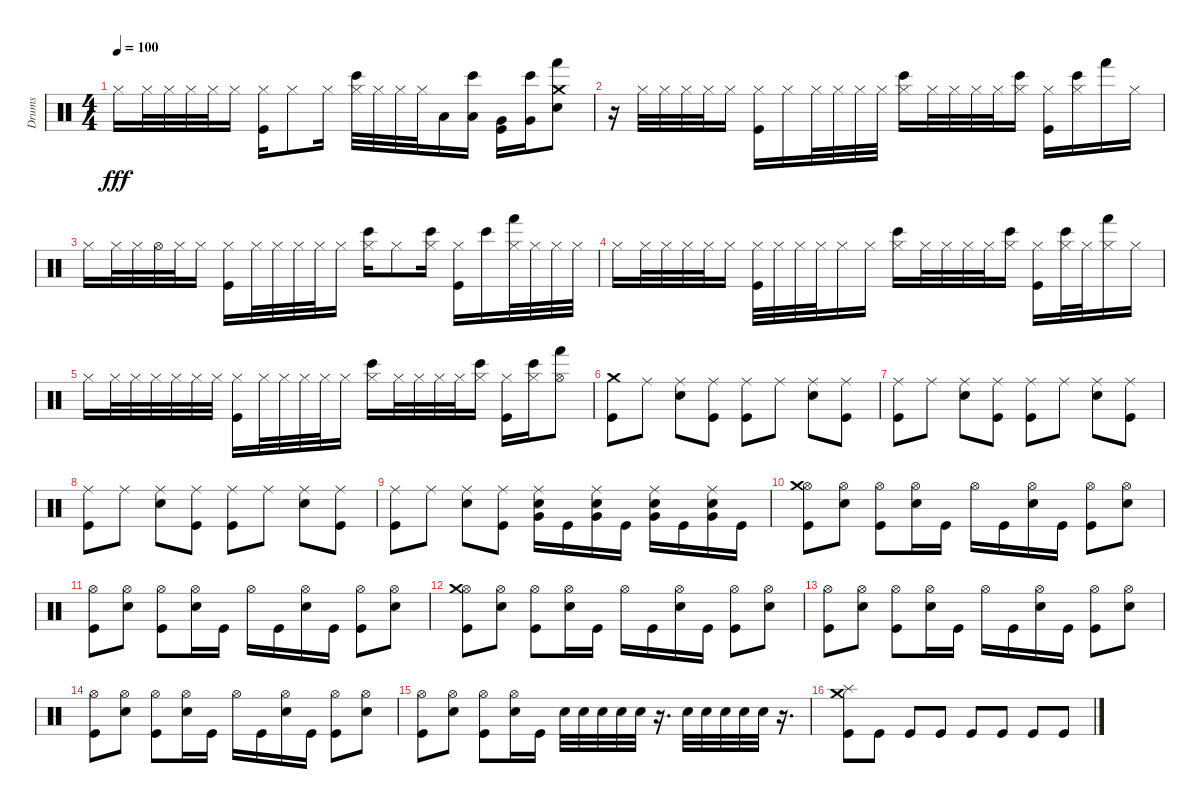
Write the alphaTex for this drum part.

\track ("Drums" "Drums") {instrument percussion}
\staff {score}
\articulation defaults
\ts (4 4)
\tempo 100
\clef neutral
\ks c "Hi-Hat (closed)".16{dy fff} "Hi-Hat (closed)".32 "Hi-Hat (closed)".32 "Hi-Hat (closed)".32 "Hi-Hat (closed)".32 "Hi-Hat (closed)".16
("Hi-Hat (closed)" "Kick (hit)").16 "Hi-Hat (closed)".8 "Hi-Hat (closed)".16 ("Bongo High (hit)" "Hi-Hat (closed)").32 "Hi-Hat (closed)".32 "Hi-Hat (closed)".32 "Hi-Hat (closed)".32 "Low Tom (hit)".16 ("Bongo High (hit)" "Low Tom (hit)").16 ("Very Low Tom (hit)" "Kick (hit)").16 ("Bongo High (hit)" "Very Low Tom (hit)").16 ("Hand (hit)" "Snare (hit) 2" "Crash medium (hit)").8 |
r.16 "Hi-Hat (closed)".32 "Hi-Hat (closed)".32 "Hi-Hat (closed)".32 "Hi-Hat (closed)".32 "Hi-Hat (closed)".16 ("Hi-Hat (closed)" "Kick (hit)").16 "Hi-Hat (closed)".16 "Hi-Hat (closed)".32 "Hi-Hat (closed)".32 "Hi-Hat (closed)".32 "Hi-Hat (closed)".32 ("Hi-Hat (closed)" "Bongo High (hit)").16 "Hi-Hat (closed)".32 "Hi-Hat (closed)".32 "Hi-Hat (closed)".32 "Hi-Hat (closed)".32 ("Hi-Hat (closed)" "Bongo High (hit)").16 ("Hi-Hat (closed)" "Kick (hit)").16 ("Hi-Hat (closed)" "Bongo High (hit)").16 "Hand (hit)".16 "Hi-Hat (closed)".16 |
"Hi-Hat (closed)".16 "Hi-Hat (closed)".32 "Hi-Hat (closed)".32 "Hi-Hat (open)".32 "Hi-Hat (closed)".32 "Hi-Hat (closed)".16 ("Kick (hit)" "Hi-Hat (closed)").16 "Hi-Hat (closed)".32 "Hi-Hat (closed)".32 "Hi-Hat (closed)".32 "Hi-Hat (closed)".32 "Hi-Hat (closed)".16 ("Hi-Hat (closed)" "Bongo High (hit)").16 "Hi-Hat (closed)".8 ("Hi-Hat (closed)" "Bongo High (hit)").16 ("Kick (hit)" "Hi-Hat (closed)").16 "Bongo High (hit)".16 ("Hi-Hat (closed)" "Hand (hit)").32 "Hi-Hat (closed)".32 "Hi-Hat (closed)".32 "Hi-Hat (closed)".32 |
"Hi-Hat (closed)".16 "Hi-Hat (closed)".32 "Hi-Hat (closed)".32 "Hi-Hat (closed)".32 "Hi-Hat (closed)".32 "Hi-Hat (closed)".16 ("Kick (hit)" "Hi-Hat (closed)").32 "Hi-Hat (closed)".32 "Hi-Hat (closed)".32 "Hi-Hat (closed)".32 "Hi-Hat (closed)".16 "Hi-Hat (closed)".16 ("Hi-Hat (closed)" "Bongo High (hit)").16 "Hi-Hat (closed)".32 "Hi-Hat (closed)".32 "Hi-Hat (closed)".32 "Hi-Hat (closed)".32 ("Hi-Hat (closed)" "Bongo High (hit)").16 ("Kick (hit)" "Hi-Hat (closed)").16 ("Hi-Hat (closed)" "Bongo High (hit)").32 "Hi-Hat (closed)".32 ("Hi-Hat (closed)" "Hand (hit)").16 "Hi-Hat (closed)".16 |
"Hi-Hat (closed)".16 "Hi-Hat (closed)".32 "Hi-Hat (closed)".32 "Hi-Hat (closed)".32 "Hi-Hat (closed)".32 "Hi-Hat (closed)".32 "Hi-Hat (closed)".32 ("Kick (hit)" "Hi-Hat (closed)").16 "Hi-Hat (closed)".32 "Hi-Hat (closed)".32 "Hi-Hat (closed)".32 "Hi-Hat (closed)".32 "Hi-Hat (closed)".16 ("Hi-Hat (closed)" "Bongo High (hit)").16 "Hi-Hat (closed)".32 "Hi-Hat (closed)".32 "Hi-Hat (closed)".32 "Hi-Hat (closed)".32 ("Hi-Hat (closed)" "Bongo High (hit)").16 ("Kick (hit)" "Hi-Hat (closed)").16 ("Hi-Hat (closed)" "Bongo High (hit)").16 ("Hi-Hat (open)" "Hand (hit)").8 |
("Kick (hit)" "Crash medium (hit)").8{volume 12} "Ride (middle)".8 ("Snare (hit) 2" "Ride (middle)").8 ("Kick (hit)" "Ride (middle)").8 ("Kick (hit)" "Ride (middle)").8 "Ride (middle)".8 ("Snare (hit) 2" "Ride (middle)").8 ("Kick (hit)" "Ride (middle)").8 |
("Kick (hit)" "Ride (middle)").8 "Ride (middle)".8 ("Snare (hit) 2" "Ride (middle)").8 ("Kick (hit)" "Ride (middle)").8 ("Kick (hit)" "Ride (middle)").8 "Ride (middle)".8 ("Snare (hit) 2" "Ride (middle)").8 ("Kick (hit)" "Ride (middle)").8 |
("Kick (hit)" "Ride (middle)").8 "Ride (middle)".8 ("Snare (hit) 2" "Ride (middle)").8 ("Kick (hit)" "Ride (middle)").8 ("Kick (hit)" "Ride (middle)").8 "Ride (middle)".8 ("Snare (hit) 2" "Ride (middle)").8 ("Kick (hit)" "Ride (middle)").8 |
("Kick (hit)" "Ride (middle)").8 "Ride (middle)".8 ("Snare (hit) 2" "Ride (middle)").8 ("Kick (hit)" "Ride (middle)").8 ("Ride (middle)" "Snare (hit) 2" "Very Low Tom (hit)").16 "Kick (hit)".16 ("Ride (middle)" "Snare (hit) 2" "Very Low Tom (hit)").16 "Kick (hit)".16 ("Ride (middle)" "Snare (hit) 2" "Very Low Tom (hit)").16 "Kick (hit)".16 ("Ride (middle)" "Snare (hit) 2" "Very Low Tom (hit)").16 "Kick (hit)".16 |
("Hi-Hat (open)" "Kick (hit)" "Crash medium (hit)").8 ("Hi-Hat (open)" "Snare (hit) 2").8 ("Hi-Hat (open)" "Kick (hit)").8 ("Hi-Hat (open)" "Snare (hit) 2").16 "Kick (hit)".16 "Hi-Hat (open)".16 "Kick (hit)".16 ("Hi-Hat (open)" "Snare (hit) 2").16 "Kick (hit)".16 ("Hi-Hat (open)" "Kick (hit)").8 ("Hi-Hat (open)" "Snare (hit) 2").8 |
("Hi-Hat (open)" "Kick (hit)").8 ("Hi-Hat (open)" "Snare (hit) 2").8 ("Hi-Hat (open)" "Kick (hit)").8 ("Hi-Hat (open)" "Snare (hit) 2").16 "Kick (hit)".16 "Hi-Hat (open)".16 "Kick (hit)".16 ("Hi-Hat (open)" "Snare (hit) 2").16 "Kick (hit)".16 ("Hi-Hat (open)" "Kick (hit)").8 ("Hi-Hat (open)" "Snare (hit) 2").8 |
("Hi-Hat (open)" "Kick (hit)" "Crash medium (hit)").8 ("Hi-Hat (open)" "Snare (hit) 2").8 ("Hi-Hat (open)" "Kick (hit)").8 ("Hi-Hat (open)" "Snare (hit) 2").16 "Kick (hit)".16 "Hi-Hat (open)".16 "Kick (hit)".16 ("Hi-Hat (open)" "Snare (hit) 2").16 "Kick (hit)".16 ("Hi-Hat (open)" "Kick (hit)").8 ("Hi-Hat (open)" "Snare (hit) 2").8 |
("Hi-Hat (open)" "Kick (hit)").8 ("Hi-Hat (open)" "Snare (hit) 2").8 ("Hi-Hat (open)" "Kick (hit)").8 ("Hi-Hat (open)" "Snare (hit) 2").16 "Kick (hit)".16 "Hi-Hat (open)".16 "Kick (hit)".16 ("Hi-Hat (open)" "Snare (hit) 2").16 "Kick (hit)".16 ("Hi-Hat (open)" "Kick (hit)").8 ("Hi-Hat (open)" "Snare (hit) 2").8 |
("Hi-Hat (open)" "Kick (hit)").8 ("Hi-Hat (open)" "Snare (hit) 2").8 ("Hi-Hat (open)" "Kick (hit)").8 ("Hi-Hat (open)" "Snare (hit) 2").16 "Kick (hit)".16 "Hi-Hat (open)".16 "Kick (hit)".16 ("Hi-Hat (open)" "Snare (hit) 2").16 "Kick (hit)".16 ("Hi-Hat (open)" "Kick (hit)").8 ("Hi-Hat (open)" "Snare (hit) 2").8 |
("Hi-Hat (open)" "Kick (hit)").8 ("Hi-Hat (open)" "Snare (hit) 2").8 ("Hi-Hat (open)" "Kick (hit)").8 ("Hi-Hat (open)" "Snare (hit) 2").16 "Kick (hit)".16 "Snare (hit) 2".32 "Snare (hit) 2".32 "Snare (hit) 2".32 "Snare (hit) 2".32 "Snare (hit) 2".32 r.16{d} "Snare (hit) 2".32 "Snare (hit) 2".32 "Snare (hit) 2".32 "Snare (hit) 2".32 "Snare (hit) 2".32 r.16{d} |
("Kick (hit)" "Crash medium (hit)" "Splash (hit)").8 "Kick (hit)".8 "Kick (hit)".8 "Kick (hit)".8 "Kick (hit)".8 "Kick (hit)".8 "Kick (hit)".8 "Kick (hit)".8
